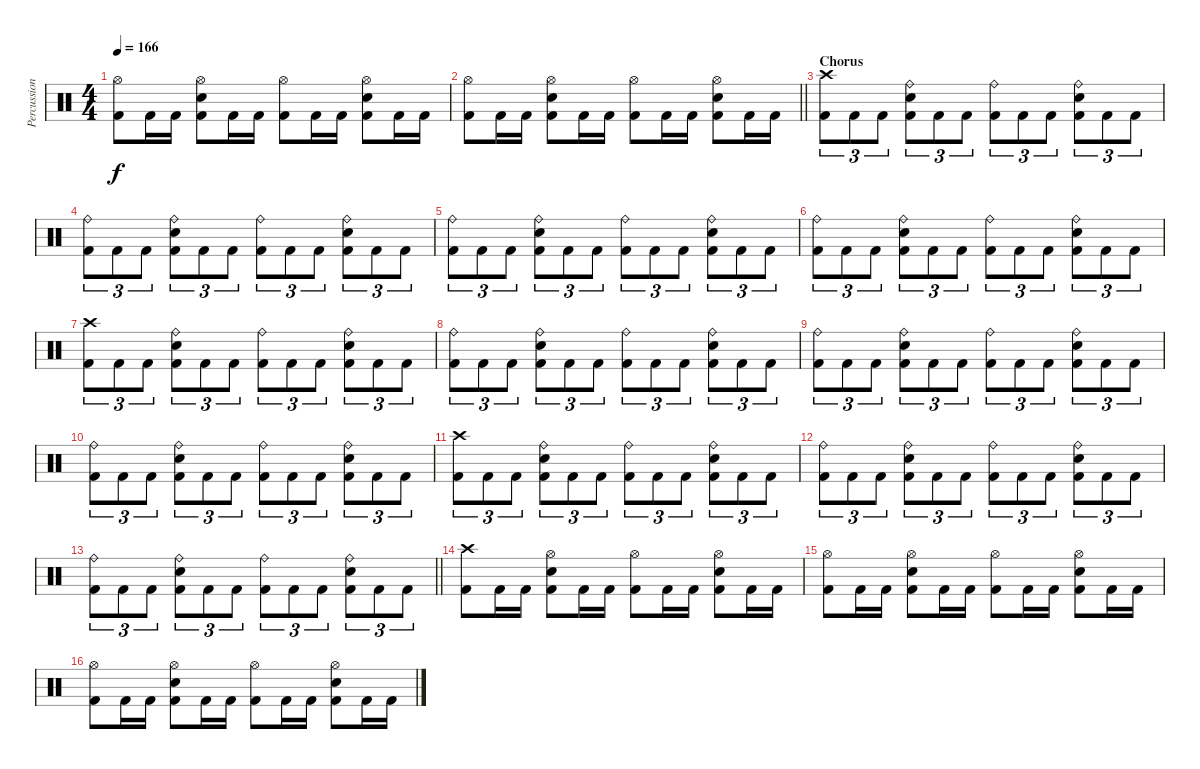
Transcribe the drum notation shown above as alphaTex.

\track ("Percussion" "Percussion") {instrument percussion}
\staff {score}
\articulation defaults
\ts (4 4)
\tempo 166
\clef neutral
\ks c
("Hi-Hat (open)" "Kick (hit) 2").8{dy f} "Kick (hit) 2".16 "Kick (hit) 2".16 ("Hi-Hat (open)" "Snare (hit) 2" "Kick (hit) 2").8 "Kick (hit) 2".16 "Kick (hit) 2".16 ("Hi-Hat (open)" "Kick (hit) 2").8 "Kick (hit) 2".16 "Kick (hit) 2".16 ("Hi-Hat (open)" "Snare (hit) 2" "Kick (hit) 2").8 "Kick (hit) 2".16 "Kick (hit) 2".16 |
\barLineRight lightlight
("Hi-Hat (open)" "Kick (hit) 2").8 "Kick (hit) 2".16 "Kick (hit) 2".16 ("Hi-Hat (open)" "Snare (hit) 2" "Kick (hit) 2").8 "Kick (hit) 2".16 "Kick (hit) 2".16 ("Hi-Hat (open)" "Kick (hit) 2").8 "Kick (hit) 2".16 "Kick (hit) 2".16 ("Hi-Hat (open)" "Snare (hit) 2" "Kick (hit) 2").8 "Kick (hit) 2".16 "Kick (hit) 2".16 |
\section ("" "Chorus")
("Crash high (hit)" "Kick (hit) 2").8{tu (3 2)} "Kick (hit) 2".8{tu (3 2)} "Kick (hit) 2".8{tu (3 2)} ("Ride (bell)" "Snare (hit) 2" "Kick (hit) 2").8{tu (3 2)} "Kick (hit) 2".8{tu (3 2)} "Kick (hit) 2".8{tu (3 2)} ("Ride (bell)" "Kick (hit) 2").8{tu (3 2)} "Kick (hit) 2".8{tu (3 2)} "Kick (hit) 2".8{tu (3 2)} ("Ride (bell)" "Snare (hit) 2" "Kick (hit) 2").8{tu (3 2)} "Kick (hit) 2".8{tu (3 2)} "Kick (hit) 2".8{tu (3 2)} |
("Ride (bell)" "Kick (hit) 2").8{tu (3 2)} "Kick (hit) 2".8{tu (3 2)} "Kick (hit) 2".8{tu (3 2)} ("Ride (bell)" "Snare (hit) 2" "Kick (hit) 2").8{tu (3 2)} "Kick (hit) 2".8{tu (3 2)} "Kick (hit) 2".8{tu (3 2)} ("Ride (bell)" "Kick (hit) 2").8{tu (3 2)} "Kick (hit) 2".8{tu (3 2)} "Kick (hit) 2".8{tu (3 2)} ("Ride (bell)" "Snare (hit) 2" "Kick (hit) 2").8{tu (3 2)} "Kick (hit) 2".8{tu (3 2)} "Kick (hit) 2".8{tu (3 2)} |
("Ride (bell)" "Kick (hit) 2").8{tu (3 2)} "Kick (hit) 2".8{tu (3 2)} "Kick (hit) 2".8{tu (3 2)} ("Ride (bell)" "Snare (hit) 2" "Kick (hit) 2").8{tu (3 2)} "Kick (hit) 2".8{tu (3 2)} "Kick (hit) 2".8{tu (3 2)} ("Ride (bell)" "Kick (hit) 2").8{tu (3 2)} "Kick (hit) 2".8{tu (3 2)} "Kick (hit) 2".8{tu (3 2)} ("Ride (bell)" "Snare (hit) 2" "Kick (hit) 2").8{tu (3 2)} "Kick (hit) 2".8{tu (3 2)} "Kick (hit) 2".8{tu (3 2)} |
("Ride (bell)" "Kick (hit) 2").8{tu (3 2)} "Kick (hit) 2".8{tu (3 2)} "Kick (hit) 2".8{tu (3 2)} ("Ride (bell)" "Snare (hit) 2" "Kick (hit) 2").8{tu (3 2)} "Kick (hit) 2".8{tu (3 2)} "Kick (hit) 2".8{tu (3 2)} ("Ride (bell)" "Kick (hit) 2").8{tu (3 2)} "Kick (hit) 2".8{tu (3 2)} "Kick (hit) 2".8{tu (3 2)} ("Ride (bell)" "Snare (hit) 2" "Kick (hit) 2").8{tu (3 2)} "Kick (hit) 2".8{tu (3 2)} "Kick (hit) 2".8{tu (3 2)} |
("Crash high (hit)" "Kick (hit) 2").8{tu (3 2)} "Kick (hit) 2".8{tu (3 2)} "Kick (hit) 2".8{tu (3 2)} ("Ride (bell)" "Snare (hit) 2" "Kick (hit) 2").8{tu (3 2)} "Kick (hit) 2".8{tu (3 2)} "Kick (hit) 2".8{tu (3 2)} ("Ride (bell)" "Kick (hit) 2").8{tu (3 2)} "Kick (hit) 2".8{tu (3 2)} "Kick (hit) 2".8{tu (3 2)} ("Ride (bell)" "Snare (hit) 2" "Kick (hit) 2").8{tu (3 2)} "Kick (hit) 2".8{tu (3 2)} "Kick (hit) 2".8{tu (3 2)} |
("Ride (bell)" "Kick (hit) 2").8{tu (3 2)} "Kick (hit) 2".8{tu (3 2)} "Kick (hit) 2".8{tu (3 2)} ("Ride (bell)" "Snare (hit) 2" "Kick (hit) 2").8{tu (3 2)} "Kick (hit) 2".8{tu (3 2)} "Kick (hit) 2".8{tu (3 2)} ("Ride (bell)" "Kick (hit) 2").8{tu (3 2)} "Kick (hit) 2".8{tu (3 2)} "Kick (hit) 2".8{tu (3 2)} ("Ride (bell)" "Snare (hit) 2" "Kick (hit) 2").8{tu (3 2)} "Kick (hit) 2".8{tu (3 2)} "Kick (hit) 2".8{tu (3 2)} |
("Ride (bell)" "Kick (hit) 2").8{tu (3 2)} "Kick (hit) 2".8{tu (3 2)} "Kick (hit) 2".8{tu (3 2)} ("Ride (bell)" "Snare (hit) 2" "Kick (hit) 2").8{tu (3 2)} "Kick (hit) 2".8{tu (3 2)} "Kick (hit) 2".8{tu (3 2)} ("Ride (bell)" "Kick (hit) 2").8{tu (3 2)} "Kick (hit) 2".8{tu (3 2)} "Kick (hit) 2".8{tu (3 2)} ("Ride (bell)" "Snare (hit) 2" "Kick (hit) 2").8{tu (3 2)} "Kick (hit) 2".8{tu (3 2)} "Kick (hit) 2".8{tu (3 2)} |
("Ride (bell)" "Kick (hit) 2").8{tu (3 2)} "Kick (hit) 2".8{tu (3 2)} "Kick (hit) 2".8{tu (3 2)} ("Ride (bell)" "Snare (hit) 2" "Kick (hit) 2").8{tu (3 2)} "Kick (hit) 2".8{tu (3 2)} "Kick (hit) 2".8{tu (3 2)} ("Ride (bell)" "Kick (hit) 2").8{tu (3 2)} "Kick (hit) 2".8{tu (3 2)} "Kick (hit) 2".8{tu (3 2)} ("Ride (bell)" "Snare (hit) 2" "Kick (hit) 2").8{tu (3 2)} "Kick (hit) 2".8{tu (3 2)} "Kick (hit) 2".8{tu (3 2)} |
("Crash high (hit)" "Kick (hit) 2").8{tu (3 2)} "Kick (hit) 2".8{tu (3 2)} "Kick (hit) 2".8{tu (3 2)} ("Ride (bell)" "Snare (hit) 2" "Kick (hit) 2").8{tu (3 2)} "Kick (hit) 2".8{tu (3 2)} "Kick (hit) 2".8{tu (3 2)} ("Ride (bell)" "Kick (hit) 2").8{tu (3 2)} "Kick (hit) 2".8{tu (3 2)} "Kick (hit) 2".8{tu (3 2)} ("Ride (bell)" "Snare (hit) 2" "Kick (hit) 2").8{tu (3 2)} "Kick (hit) 2".8{tu (3 2)} "Kick (hit) 2".8{tu (3 2)} |
("Ride (bell)" "Kick (hit) 2").8{tu (3 2)} "Kick (hit) 2".8{tu (3 2)} "Kick (hit) 2".8{tu (3 2)} ("Ride (bell)" "Snare (hit) 2" "Kick (hit) 2").8{tu (3 2)} "Kick (hit) 2".8{tu (3 2)} "Kick (hit) 2".8{tu (3 2)} ("Ride (bell)" "Kick (hit) 2").8{tu (3 2)} "Kick (hit) 2".8{tu (3 2)} "Kick (hit) 2".8{tu (3 2)} ("Ride (bell)" "Snare (hit) 2" "Kick (hit) 2").8{tu (3 2)} "Kick (hit) 2".8{tu (3 2)} "Kick (hit) 2".8{tu (3 2)} |
\barLineRight lightlight
("Ride (bell)" "Kick (hit) 2").8{tu (3 2)} "Kick (hit) 2".8{tu (3 2)} "Kick (hit) 2".8{tu (3 2)} ("Ride (bell)" "Snare (hit) 2" "Kick (hit) 2").8{tu (3 2)} "Kick (hit) 2".8{tu (3 2)} "Kick (hit) 2".8{tu (3 2)} ("Ride (bell)" "Kick (hit) 2").8{tu (3 2)} "Kick (hit) 2".8{tu (3 2)} "Kick (hit) 2".8{tu (3 2)} ("Ride (bell)" "Snare (hit) 2" "Kick (hit) 2").8{tu (3 2)} "Kick (hit) 2".8{tu (3 2)} "Kick (hit) 2".8{tu (3 2)} |
("Crash high (hit)" "Kick (hit) 2").8 "Kick (hit) 2".16 "Kick (hit) 2".16 ("Hi-Hat (open)" "Snare (hit) 2" "Kick (hit) 2").8 "Kick (hit) 2".16 "Kick (hit) 2".16 ("Hi-Hat (open)" "Kick (hit) 2").8 "Kick (hit) 2".16 "Kick (hit) 2".16 ("Hi-Hat (open)" "Snare (hit) 2" "Kick (hit) 2").8 "Kick (hit) 2".16 "Kick (hit) 2".16 |
("Hi-Hat (open)" "Kick (hit) 2").8 "Kick (hit) 2".16 "Kick (hit) 2".16 ("Hi-Hat (open)" "Snare (hit) 2" "Kick (hit) 2").8 "Kick (hit) 2".16 "Kick (hit) 2".16 ("Hi-Hat (open)" "Kick (hit) 2").8 "Kick (hit) 2".16 "Kick (hit) 2".16 ("Hi-Hat (open)" "Snare (hit) 2" "Kick (hit) 2").8 "Kick (hit) 2".16 "Kick (hit) 2".16 |
("Hi-Hat (open)" "Kick (hit) 2").8 "Kick (hit) 2".16 "Kick (hit) 2".16 ("Hi-Hat (open)" "Snare (hit) 2" "Kick (hit) 2").8 "Kick (hit) 2".16 "Kick (hit) 2".16 ("Hi-Hat (open)" "Kick (hit) 2").8 "Kick (hit) 2".16 "Kick (hit) 2".16 ("Hi-Hat (open)" "Snare (hit) 2" "Kick (hit) 2").8 "Kick (hit) 2".16 "Kick (hit) 2".16
